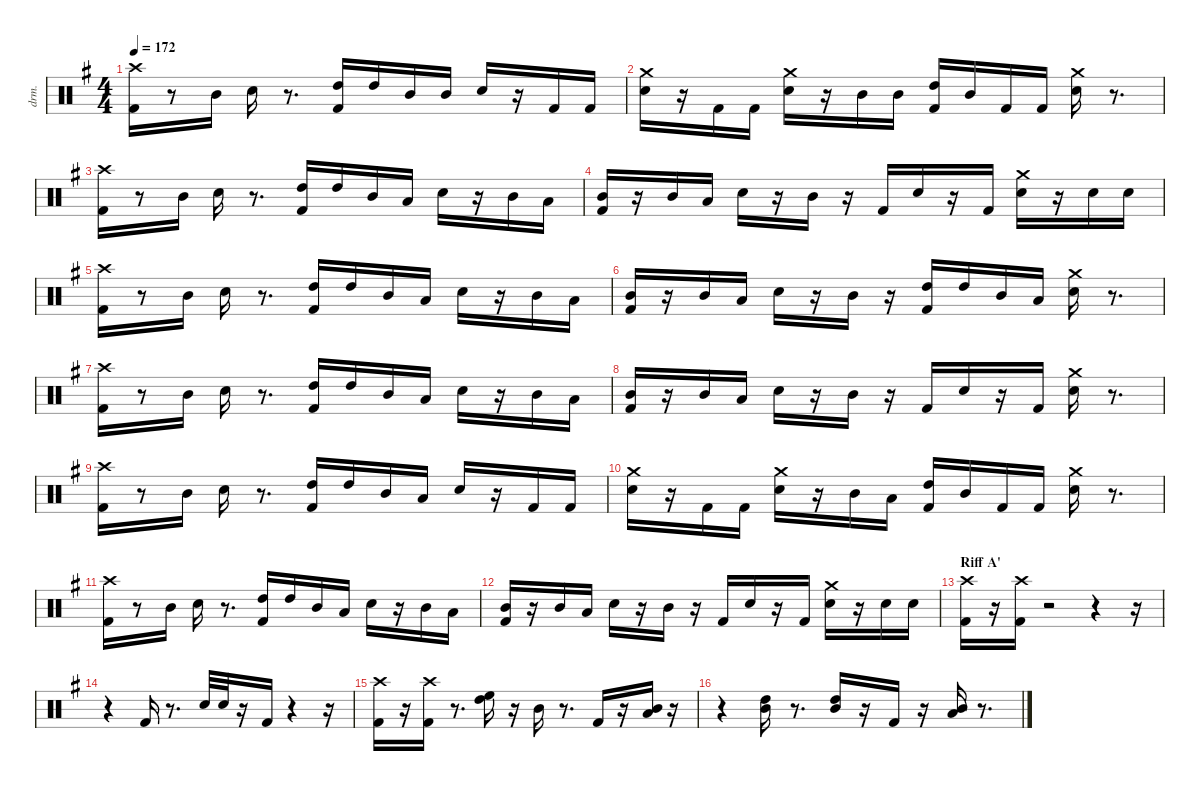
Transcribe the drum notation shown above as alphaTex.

\defaultSystemsLayout 4
\hideDynamics
\bracketExtendMode nobrackets
\otherSystemsTrackNameOrientation horizontal
\track ("Shinya" "drm.") {instrument percussion}
\staff {score}
\articulation defaults
\ts (4 4)
\tempo 172
\clef neutral
\ks eminor
("Kick (hit) 2"{acc forcenatural} "Crash high (hit)"{acc #}).16{dy fff beam Down} r.8{beam Down} "Mid Tom (hit)"{acc forcenatural}.16{beam Down} "Snare (hit) 2"{acc forcenatural}.16{beam Down} r.8{d beam Down} ("Kick (hit) 2"{acc forcenatural} "High Tom (hit)"{acc forcenatural}).16{beam Up} "High Tom (hit)"{acc forcenatural}.16{beam Up} "Mid Tom (hit)"{acc forcenatural}.16{beam Up} "Mid Tom (hit)"{acc forcenatural}.16{beam Up} "Snare (hit) 2"{acc forcenatural}.16{beam Up} r.16{beam Up} "Kick (hit) 2"{acc forcenatural}.16{beam Up} "Kick (hit) 2"{acc forcenatural}.16{beam Up} |
("Snare (hit) 2"{acc forcenatural} "Crash medium (hit)"{acc forcenatural}).16{beam Down} r.16{beam Down} "Kick (hit) 2"{acc forcenatural}.16{beam Down} "Kick (hit) 2"{acc forcenatural}.16{beam Down} ("Snare (hit) 2"{acc forcenatural} "Crash medium (hit)"{acc forcenatural}).16{beam Down} r.16{beam Down} "Mid Tom (hit)"{acc forcenatural}.16{beam Down} "Mid Tom (hit)"{acc forcenatural}.16{beam Down} ("Kick (hit) 2"{acc forcenatural} "High Tom (hit)"{acc forcenatural}).16{beam Up} "Mid Tom (hit)"{acc forcenatural}.16{beam Up} "Kick (hit) 2"{acc forcenatural}.16{beam Up} "Kick (hit) 2"{acc forcenatural}.16{beam Up} ("Snare (hit) 2"{acc forcenatural} "Crash medium (hit)"{acc forcenatural}).16{beam Down} r.8{d beam Down} |
("Kick (hit) 2"{acc forcenatural} "Crash high (hit)"{acc #}).16{beam Down} r.8{beam Down} "Mid Tom (hit)"{acc forcenatural}.16{beam Down} "Snare (hit) 2"{acc forcenatural}.16{beam Down} r.8{d beam Down} ("Kick (hit) 2"{acc forcenatural} "High Tom (hit)"{acc forcenatural}).16{beam Up} "High Tom (hit)"{acc forcenatural}.16{beam Up} "Mid Tom (hit)"{acc forcenatural}.16{beam Up} "Low Tom (hit)"{acc forcenatural}.16{beam Up} "Snare (hit) 2"{acc forcenatural}.16{beam Down} r.16{beam Down} "Mid Tom (hit)"{acc forcenatural}.16{beam Down} "Low Tom (hit)"{acc forcenatural}.16{beam Down} |
("Kick (hit) 2"{acc forcenatural} "Mid Tom (hit)"{acc forcenatural}).16{beam Up} r.16{beam Up} "Mid Tom (hit)"{acc forcenatural}.16{beam Up} "Low Tom (hit)"{acc forcenatural}.16{dy ff beam Up} "Snare (hit) 2"{acc forcenatural}.16{dy fff beam Down} r.16{beam Down} "Mid Tom (hit)"{acc forcenatural}.16{beam Down} r.16{beam Down} "Kick (hit) 2"{acc forcenatural}.16{beam Up} "Snare (hit) 2"{acc forcenatural}.16{beam Up} r.16{beam Up} "Kick (hit) 2"{acc forcenatural}.16{beam Up} ("Snare (hit) 2"{acc forcenatural} "Crash medium (hit)"{acc forcenatural}).16{beam Down} r.16{beam Down} "Snare (hit) 2"{acc forcenatural}.16{beam Down} "Snare (hit) 2"{acc forcenatural}.16{beam Down} |
("Kick (hit) 2"{acc forcenatural} "Crash high (hit)"{acc #}).16{beam Down} r.8{beam Down} "Mid Tom (hit)"{acc forcenatural}.16{beam Down} "Snare (hit) 2"{acc forcenatural}.16{beam Down} r.8{d beam Down} ("Kick (hit) 2"{acc forcenatural} "High Tom (hit)"{acc forcenatural}).16{beam Up} "High Tom (hit)"{acc forcenatural}.16{beam Up} "Mid Tom (hit)"{acc forcenatural}.16{beam Up} "Low Tom (hit)"{acc forcenatural}.16{beam Up} "Snare (hit) 2"{acc forcenatural}.16{beam Down} r.16{beam Down} "Mid Tom (hit)"{acc forcenatural}.16{beam Down} "Low Tom (hit)"{acc forcenatural}.16{beam Down} |
("Kick (hit) 2"{acc forcenatural} "Mid Tom (hit)"{acc forcenatural}).16{beam Up} r.16{beam Up} "Mid Tom (hit)"{acc forcenatural}.16{beam Up} "Low Tom (hit)"{acc forcenatural}.16{dy ff beam Up} "Snare (hit) 2"{acc forcenatural}.16{dy fff beam Down} r.16{beam Down} "Mid Tom (hit)"{acc forcenatural}.16{beam Down} r.16{beam Down} ("Kick (hit) 2"{acc forcenatural} "High Tom (hit)"{acc forcenatural}).16{beam Up} "High Tom (hit)"{acc forcenatural}.16{beam Up} "Mid Tom (hit)"{acc forcenatural}.16{beam Up} "Low Tom (hit)"{acc forcenatural}.16{beam Up} ("Snare (hit) 2"{acc forcenatural} "Crash medium (hit)"{acc forcenatural}).16{beam Down} r.8{d beam Down} |
("Kick (hit) 2"{acc forcenatural} "Crash high (hit)"{acc #}).16{beam Down} r.8{beam Down} "Mid Tom (hit)"{acc forcenatural}.16{beam Down} "Snare (hit) 2"{acc forcenatural}.16{beam Down} r.8{d beam Down} ("Kick (hit) 2"{acc forcenatural} "High Tom (hit)"{acc forcenatural}).16{beam Up} "High Tom (hit)"{acc forcenatural}.16{beam Up} "Mid Tom (hit)"{acc forcenatural}.16{beam Up} "Low Tom (hit)"{acc forcenatural}.16{beam Up} "Snare (hit) 2"{acc forcenatural}.16{beam Down} r.16{beam Down} "Mid Tom (hit)"{acc forcenatural}.16{beam Down} "Low Tom (hit)"{acc forcenatural}.16{beam Down} |
("Kick (hit) 2"{acc forcenatural} "Mid Tom (hit)"{acc forcenatural}).16{beam Up} r.16{beam Up} "Mid Tom (hit)"{acc forcenatural}.16{beam Up} "Low Tom (hit)"{acc forcenatural}.16{dy ff beam Up} "Snare (hit) 2"{acc forcenatural}.16{dy fff beam Down} r.16{beam Down} "Mid Tom (hit)"{acc forcenatural}.16{beam Down} r.16{beam Down} "Kick (hit) 2"{acc forcenatural}.16{beam Up} "Snare (hit) 2"{acc forcenatural}.16{beam Up} r.16{beam Up} "Kick (hit) 2"{acc forcenatural}.16{beam Up} ("Snare (hit) 2"{acc forcenatural} "Crash medium (hit)"{acc forcenatural}).16{beam Down} r.8{d beam Down} |
("Kick (hit) 2"{acc forcenatural} "Crash high (hit)"{acc #}).16{beam Down} r.8{beam Down} "Mid Tom (hit)"{acc forcenatural}.16{beam Down} "Snare (hit) 2"{acc forcenatural}.16{beam Down} r.8{d beam Down} ("Kick (hit) 2"{acc forcenatural} "High Tom (hit)"{acc forcenatural}).16{beam Up} "High Tom (hit)"{acc forcenatural}.16{beam Up} "Mid Tom (hit)"{acc forcenatural}.16{beam Up} "Low Tom (hit)"{acc forcenatural}.16{beam Up} "Snare (hit) 2"{acc forcenatural}.16{beam Up} r.16{beam Up} "Kick (hit) 2"{acc forcenatural}.16{beam Up} "Kick (hit) 2"{acc forcenatural}.16{beam Up} |
("Snare (hit) 2"{acc forcenatural} "Crash medium (hit)"{acc forcenatural}).16{beam Down} r.16{beam Down} "Kick (hit) 2"{acc forcenatural}.16{beam Down} "Kick (hit) 2"{acc forcenatural}.16{beam Down} ("Snare (hit) 2"{acc forcenatural} "Crash medium (hit)"{acc forcenatural}).16{beam Down} r.16{beam Down} "Mid Tom (hit)"{acc forcenatural}.16{beam Down} "Low Tom (hit)"{acc forcenatural}.16{beam Down} ("Kick (hit) 2"{acc forcenatural} "High Tom (hit)"{acc forcenatural}).16{beam Up} "Mid Tom (hit)"{acc forcenatural}.16{beam Up} "Kick (hit) 2"{acc forcenatural}.16{beam Up} "Kick (hit) 2"{acc forcenatural}.16{beam Up} ("Snare (hit) 2"{acc forcenatural} "Crash medium (hit)"{acc forcenatural}).16{beam Down} r.8{d beam Down} |
("Kick (hit) 2"{acc forcenatural} "Crash high (hit)"{acc #}).16{beam Down} r.8{beam Down} "Mid Tom (hit)"{acc forcenatural}.16{beam Down} "Snare (hit) 2"{acc forcenatural}.16{beam Down} r.8{d beam Down} ("Kick (hit) 2"{acc forcenatural} "High Tom (hit)"{acc forcenatural}).16{beam Up} "High Tom (hit)"{acc forcenatural}.16{beam Up} "Mid Tom (hit)"{acc forcenatural}.16{beam Up} "Low Tom (hit)"{acc forcenatural}.16{beam Up} "Snare (hit) 2"{acc forcenatural}.16{beam Down} r.16{beam Down} "Mid Tom (hit)"{acc forcenatural}.16{beam Down} "Low Tom (hit)"{acc forcenatural}.16{beam Down} |
("Kick (hit) 2"{acc forcenatural} "Mid Tom (hit)"{acc forcenatural}).16{beam Up} r.16{beam Up} "Mid Tom (hit)"{acc forcenatural}.16{beam Up} "Low Tom (hit)"{acc forcenatural}.16{dy ff beam Up} "Snare (hit) 2"{acc forcenatural}.16{dy fff beam Down} r.16{beam Down} "Mid Tom (hit)"{acc forcenatural}.16{beam Down} r.16{beam Down} "Kick (hit) 2"{acc forcenatural}.16{beam Up} "Snare (hit) 2"{acc forcenatural}.16{beam Up} r.16{beam Up} "Kick (hit) 2"{acc forcenatural}.16{beam Up} ("Snare (hit) 2"{acc forcenatural} "Crash medium (hit)"{acc forcenatural}).16{beam Down} r.16{beam Down} "Snare (hit) 2"{acc forcenatural}.16{beam Down} "Snare (hit) 2"{acc forcenatural}.16{beam Down} |
\section ("" "Riff A'")
("Kick (hit) 2"{acc forcenatural} "Crash high (hit)"{acc #}).16{beam Down} r.16{beam Down} ("Kick (hit) 2"{acc forcenatural} "Crash high (hit)"{acc #}).16{beam Down} r.2{beam Down} r.4{beam Down} r.16{beam Down} |
r.4{beam Down} "Kick (hit) 2"{acc forcenatural}.16{beam Up} r.8{d beam Up} "Snare (hit) 2"{acc forcenatural}.32{beam Up} "Snare (hit) 2"{acc forcenatural}.32{beam Up} r.16{beam Up} "Kick (hit) 2"{acc forcenatural}.16{beam Up} r.4{beam Up} r.16{beam Up} |
("Kick (hit) 2"{acc forcenatural} "Crash high (hit)"{acc #}).16{beam Down} r.16{beam Down} ("Kick (hit) 2"{acc forcenatural} "Crash high (hit)"{acc #}).16{beam Down} r.8{d beam Down} ("High Tom (hit)"{acc forcenatural} "High Floor Tom (hit)"{acc forcenatural}).16{beam Down} r.16{beam Down} "Mid Tom (hit)"{acc forcenatural}.16{beam Down} r.8{d beam Down} "Kick (hit) 2"{acc forcenatural}.16{beam Up} r.16{beam Up} ("Low Tom (hit)"{acc forcenatural} "Mid Tom (hit)"{acc forcenatural}).16{beam Up} r.16{beam Up} |
r.4{beam Down} ("Mid Tom (hit)"{acc forcenatural} "High Tom (hit)"{acc forcenatural}).16{beam Down} r.8{d beam Down} ("Mid Tom (hit)"{acc forcenatural} "High Tom (hit)"{acc forcenatural}).16{beam Up} r.16{beam Up} "Kick (hit) 2"{acc forcenatural}.16{beam Up} r.16{beam Up} ("Low Tom (hit)"{acc forcenatural} "Mid Tom (hit)"{acc forcenatural}).16{beam Up} r.8{d beam Up}
